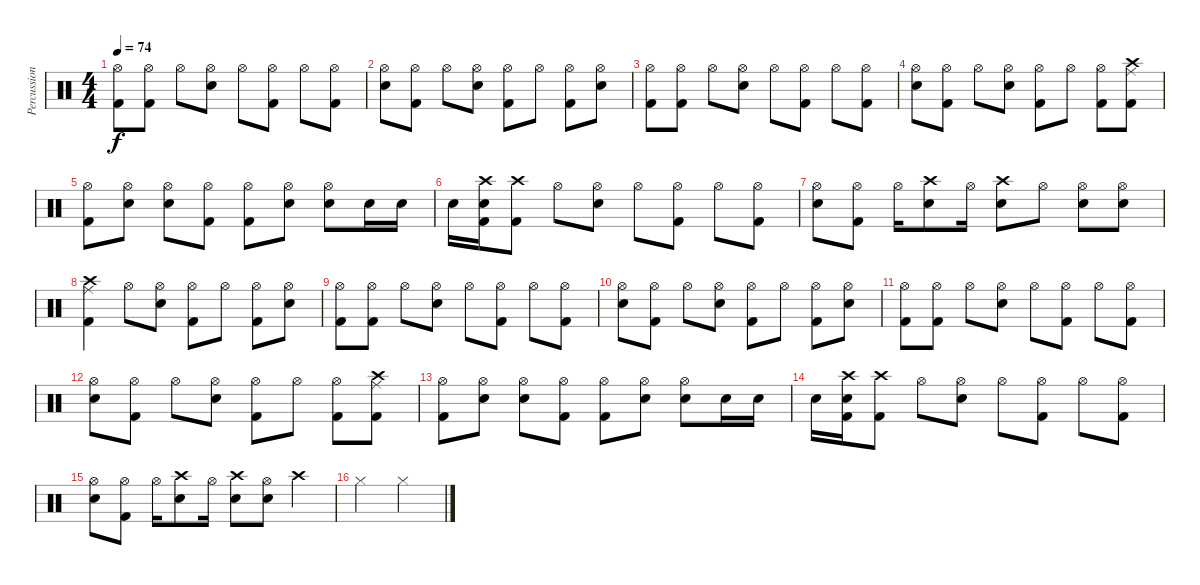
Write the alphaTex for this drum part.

\track ("Percussion" "Percussion") {instrument percussion}
\staff {score}
\articulation defaults
\ts (4 4)
\tempo 74
\clef neutral
\ks c
("Hi-Hat (open)" "Kick (hit) 2").8{dy f} ("Hi-Hat (open)" "Kick (hit) 2").8 "Hi-Hat (open)".8 ("Hi-Hat (open)" "Snare (hit) 2").8 "Hi-Hat (open)".8 ("Hi-Hat (open)" "Kick (hit) 2").8 "Hi-Hat (open)".8 ("Hi-Hat (open)" "Kick (hit) 2").8 |
("Hi-Hat (open)" "Snare (hit) 2").8 ("Hi-Hat (open)" "Kick (hit) 2").8 "Hi-Hat (open)".8 ("Hi-Hat (open)" "Snare (hit) 2").8 ("Hi-Hat (open)" "Kick (hit) 2").8 "Hi-Hat (open)".8 ("Hi-Hat (open)" "Kick (hit) 2").8 ("Hi-Hat (open)" "Snare (hit) 2").8 |
("Hi-Hat (open)" "Kick (hit) 2").8 ("Hi-Hat (open)" "Kick (hit) 2").8 "Hi-Hat (open)".8 ("Hi-Hat (open)" "Snare (hit) 2").8 "Hi-Hat (open)".8 ("Hi-Hat (open)" "Kick (hit) 2").8 "Hi-Hat (open)".8 ("Hi-Hat (open)" "Kick (hit) 2").8 |
("Hi-Hat (open)" "Snare (hit) 2").8 ("Hi-Hat (open)" "Kick (hit) 2").8 "Hi-Hat (open)".8 ("Hi-Hat (open)" "Snare (hit) 2").8 ("Hi-Hat (open)" "Kick (hit) 2").8 "Hi-Hat (open)".8 ("Hi-Hat (open)" "Kick (hit) 2").8 ("Crash high (hit)" "Kick (hit) 2" "Ride (middle)").8 |
("Hi-Hat (open)" "Kick (hit) 2").8 ("Hi-Hat (open)" "Snare (hit) 2").8 ("Hi-Hat (open)" "Snare (hit) 2").8 ("Hi-Hat (open)" "Kick (hit) 2").8 ("Hi-Hat (open)" "Kick (hit) 2").8 ("Hi-Hat (open)" "Snare (hit) 2").8 ("Hi-Hat (open)" "Snare (hit) 2").8 "Snare (hit) 2".16 "Snare (hit) 2".16 |
"Snare (hit) 2".16 ("Crash high (hit)" "Kick (hit) 2" "Snare (hit) 2").16 ("Crash high (hit)" "Kick (hit) 2").8 "Hi-Hat (open)".8 ("Hi-Hat (open)" "Snare (hit) 2").8 "Hi-Hat (open)".8 ("Hi-Hat (open)" "Kick (hit) 2").8 "Hi-Hat (open)".8 ("Hi-Hat (open)" "Kick (hit) 2").8 |
("Hi-Hat (open)" "Snare (hit) 2").8 ("Hi-Hat (open)" "Kick (hit) 2").8 "Hi-Hat (open)".16 ("Crash high (hit)" "Snare (hit) 2").8 "Hi-Hat (open)".16 ("Crash high (hit)" "Snare (hit) 2").8 "Hi-Hat (open)".8 ("Hi-Hat (open)" "Snare (hit) 2").8 ("Hi-Hat (open)" "Snare (hit) 2").8 |
("Ride (middle)" "Crash high (hit)" "Kick (hit) 2").4 "Hi-Hat (open)".8 ("Hi-Hat (open)" "Snare (hit) 2").8 ("Hi-Hat (open)" "Kick (hit) 2").8 "Hi-Hat (open)".8 ("Hi-Hat (open)" "Kick (hit) 2").8 ("Hi-Hat (open)" "Snare (hit) 2").8 |
("Hi-Hat (open)" "Kick (hit) 2").8 ("Hi-Hat (open)" "Kick (hit) 2").8 "Hi-Hat (open)".8 ("Hi-Hat (open)" "Snare (hit) 2").8 "Hi-Hat (open)".8 ("Hi-Hat (open)" "Kick (hit) 2").8 "Hi-Hat (open)".8 ("Hi-Hat (open)" "Kick (hit) 2").8 |
("Hi-Hat (open)" "Snare (hit) 2").8 ("Hi-Hat (open)" "Kick (hit) 2").8 "Hi-Hat (open)".8 ("Hi-Hat (open)" "Snare (hit) 2").8 ("Hi-Hat (open)" "Kick (hit) 2").8 "Hi-Hat (open)".8 ("Hi-Hat (open)" "Kick (hit) 2").8 ("Hi-Hat (open)" "Snare (hit) 2").8 |
("Hi-Hat (open)" "Kick (hit) 2").8 ("Hi-Hat (open)" "Kick (hit) 2").8 "Hi-Hat (open)".8 ("Hi-Hat (open)" "Snare (hit) 2").8 "Hi-Hat (open)".8 ("Hi-Hat (open)" "Kick (hit) 2").8 "Hi-Hat (open)".8 ("Hi-Hat (open)" "Kick (hit) 2").8 |
("Hi-Hat (open)" "Snare (hit) 2").8 ("Hi-Hat (open)" "Kick (hit) 2").8 "Hi-Hat (open)".8 ("Hi-Hat (open)" "Snare (hit) 2").8 ("Hi-Hat (open)" "Kick (hit) 2").8 "Hi-Hat (open)".8 ("Hi-Hat (open)" "Kick (hit) 2").8 ("Crash high (hit)" "Kick (hit) 2" "Ride (middle)").8 |
("Hi-Hat (open)" "Kick (hit) 2").8 ("Hi-Hat (open)" "Snare (hit) 2").8 ("Hi-Hat (open)" "Snare (hit) 2").8 ("Hi-Hat (open)" "Kick (hit) 2").8 ("Hi-Hat (open)" "Kick (hit) 2").8 ("Hi-Hat (open)" "Snare (hit) 2").8 ("Hi-Hat (open)" "Snare (hit) 2").8 "Snare (hit) 2".16 "Snare (hit) 2".16 |
"Snare (hit) 2".16 ("Crash high (hit)" "Kick (hit) 2" "Snare (hit) 2").16 ("Crash high (hit)" "Kick (hit) 2").8 "Hi-Hat (open)".8 ("Hi-Hat (open)" "Snare (hit) 2").8 "Hi-Hat (open)".8 ("Hi-Hat (open)" "Kick (hit) 2").8 "Hi-Hat (open)".8 ("Hi-Hat (open)" "Kick (hit) 2").8 |
("Hi-Hat (open)" "Snare (hit) 2").8 ("Hi-Hat (open)" "Kick (hit) 2").8 "Hi-Hat (open)".16 ("Crash high (hit)" "Snare (hit) 2").8 "Hi-Hat (open)".16 ("Crash high (hit)" "Snare (hit) 2").8 ("Hi-Hat (open)" "Snare (hit) 2").8 "Crash high (hit)".4 |
"Hi-Hat (closed)".2 "Hi-Hat (closed)".2
